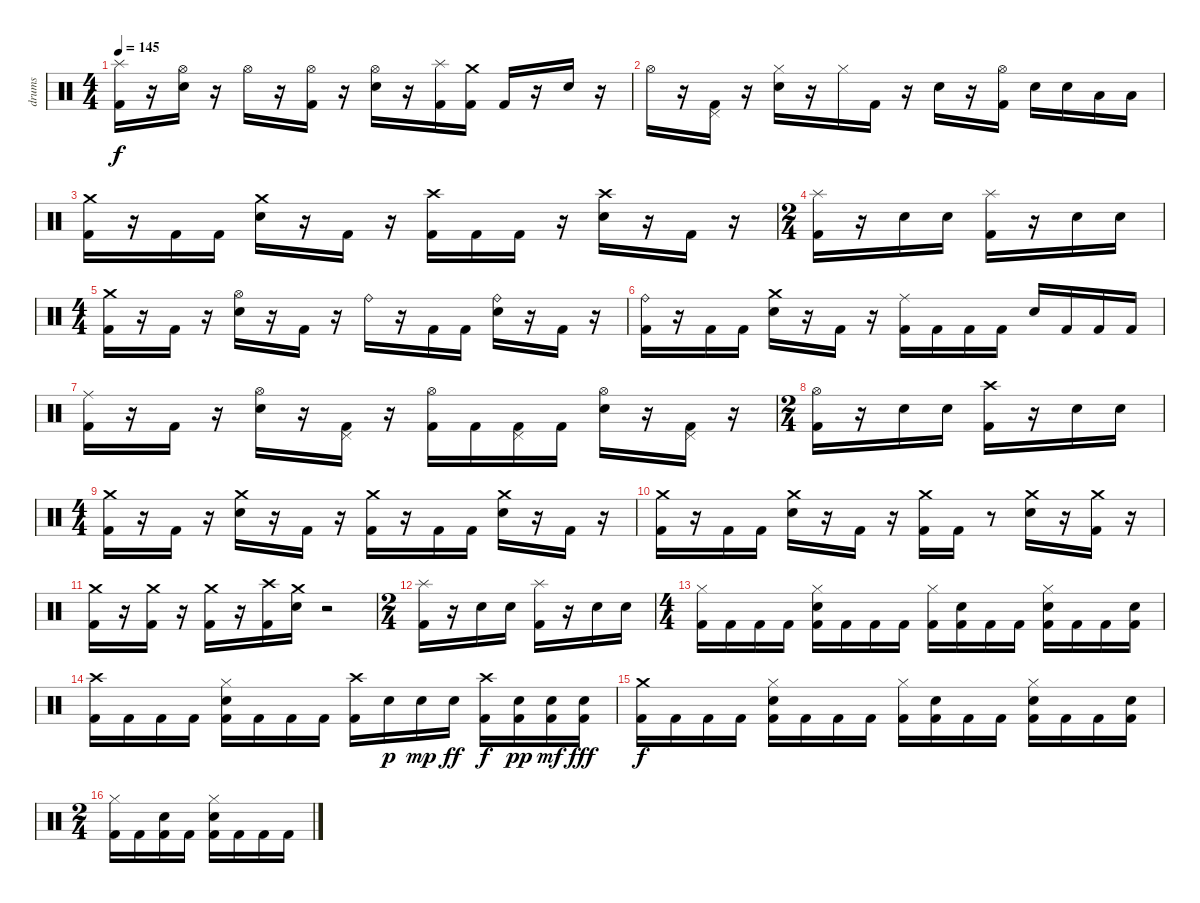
\track ("drums" "drums") {instrument percussion}
\staff {score}
\articulation defaults
\ts (4 4)
\tempo 145
\clef neutral
\ks c
("Kick (hit) 2" "Splash (hit)").16{dy f} r.16 ("Snare (hit) 2" "Hi-Hat (open)").16 r.16 "Hi-Hat (open)".16 r.16 ("Kick (hit) 2" "Hi-Hat (open)").16 r.16 ("Snare (hit) 2" "Hi-Hat (open)").16 r.16 ("Kick (hit) 2" "Splash (hit)").16 ("Kick (hit) 2" "Crash medium (hit)").16 "Kick (hit) 2".16 r.16 "Snare (hit) 2".16 r.16 |
"Hi-Hat (open)".16 r.16 ("Kick (hit) 2" "Pedal Hi-Hat (hit)").16 r.16 ("Snare (hit) 2" "Hi-Hat (closed)").16 r.16 "Hi-Hat (closed)".16 "Kick (hit) 2".16 r.16 "Snare (hit) 2".16 r.16 ("Kick (hit) 2" "Hi-Hat (open)").16 "Snare (hit) 2".16 "Snare (hit) 2".16 "Low Tom (hit)".16 "Low Tom (hit)".16 |
("Kick (hit) 2" "Crash medium (hit)").16 r.16 "Kick (hit) 2".16 "Kick (hit) 2".16 ("Snare (hit) 2" "Crash medium (hit)").16 r.16 "Kick (hit) 2".16 r.16 ("Kick (hit) 2" "Crash high (hit)").16 "Kick (hit) 2".16 "Kick (hit) 2".16 r.16 ("Snare (hit) 2" "Crash high (hit)").16 r.16 "Kick (hit) 2".16 r.16 |
\ts (2 4)
("Kick (hit) 2" "Splash (hit)").16 r.16 "Snare (hit) 2".16 "Snare (hit) 2".16 ("Kick (hit) 2" "Splash (hit)").16 r.16 "Snare (hit) 2".16 "Snare (hit) 2".16 |
\ts (4 4)
("Kick (hit) 2" "Crash medium (hit)").16 r.16 "Kick (hit) 2".16 r.16 ("Snare (hit) 2" "Hi-Hat (open)").16 r.16 "Kick (hit) 2".16 r.16 "Ride (bell)".16 r.16 "Kick (hit) 2".16 "Kick (hit) 2".16 ("Snare (hit) 2" "Ride (bell)").16 r.16 "Kick (hit) 2".16 r.16 |
("Kick (hit) 2" "Ride (bell)").16 r.16 "Kick (hit) 2".16 "Kick (hit) 2".16 ("Snare (hit) 2" "Crash medium (hit)").16 r.16 "Kick (hit) 2".16 r.16 ("Kick (hit) 2" "Ride (middle)").16 "Kick (hit) 2".16 "Kick (hit) 2".16 "Kick (hit) 2".16 "Snare (hit) 2".16 "Kick (hit) 2".16 "Kick (hit) 2".16 "Kick (hit) 2".16 |
("Kick (hit) 2" "Ride (middle)").16 r.16 "Kick (hit) 2".16 r.16 ("Snare (hit) 2" "Hi-Hat (open)").16 r.16 ("Kick (hit) 2" "Pedal Hi-Hat (hit)").16 r.16 ("Kick (hit) 2" "Hi-Hat (open)").16 "Kick (hit) 2".16 ("Kick (hit) 2" "Pedal Hi-Hat (hit)").16 "Kick (hit) 2".16 ("Snare (hit) 2" "Hi-Hat (open)").16 r.16 ("Kick (hit) 2" "Pedal Hi-Hat (hit)").16 r.16 |
\ts (2 4)
("Kick (hit) 2" "Hi-Hat (open)").16 r.16 "Snare (hit) 2".16 "Snare (hit) 2".16 ("Kick (hit) 2" "Crash high (hit)").16 r.16 "Snare (hit) 2".16 "Snare (hit) 2".16 |
\ts (4 4)
("Kick (hit) 2" "Crash medium (hit)").16 r.16 "Kick (hit) 2".16 r.16 ("Snare (hit) 2" "Crash medium (hit)").16 r.16 "Kick (hit) 2".16 r.16 ("Kick (hit) 2" "Crash medium (hit)").16 r.16 "Kick (hit) 2".16 "Kick (hit) 2".16 ("Snare (hit) 2" "Crash medium (hit)").16 r.16 "Kick (hit) 2".16 r.16 |
("Kick (hit) 2" "Crash medium (hit)").16 r.16 "Kick (hit) 2".16 "Kick (hit) 2".16 ("Snare (hit) 2" "Crash medium (hit)").16 r.16 "Kick (hit) 2".16 r.16 ("Kick (hit) 2" "Crash medium (hit)").16 "Kick (hit) 2".16 r.8 ("Snare (hit) 2" "Crash medium (hit)").16 r.16 ("Kick (hit) 2" "Crash medium (hit)").16 r.16 |
("Kick (hit) 2" "Crash medium (hit)").16 r.16 ("Kick (hit) 2" "Crash medium (hit)").16 r.16 ("Kick (hit) 2" "Crash medium (hit)").16 r.16 ("Kick (hit) 2" "Crash high (hit)").16 ("Snare (hit) 2" "Crash medium (hit)").16 r.2 |
\ts (2 4)
("Kick (hit) 2" "Splash (hit)").16 r.16 "Snare (hit) 2".16 "Snare (hit) 2".16 ("Kick (hit) 2" "Splash (hit)").16 r.16 "Snare (hit) 2".16 "Snare (hit) 2".16 |
\ts (4 4)
("Kick (hit) 2" "Hi-Hat (closed)").16 "Kick (hit) 2".16 "Kick (hit) 2".16 "Kick (hit) 2".16 ("Kick (hit) 2" "Snare (hit) 2" "Hi-Hat (closed)").16 "Kick (hit) 2".16 "Kick (hit) 2".16 "Kick (hit) 2".16 ("Kick (hit) 2" "Hi-Hat (closed)").16 ("Kick (hit) 2" "Snare (hit) 2").16 "Kick (hit) 2".16 "Kick (hit) 2".16 ("Kick (hit) 2" "Snare (hit) 2" "Hi-Hat (closed)").16 "Kick (hit) 2".16 "Kick (hit) 2".16 ("Kick (hit) 2" "Snare (hit) 2").16 |
("Kick (hit) 2" "Crash high (hit)").16 "Kick (hit) 2".16 "Kick (hit) 2".16 "Kick (hit) 2".16 ("Kick (hit) 2" "Snare (hit) 2" "Hi-Hat (closed)").16 "Kick (hit) 2".16 "Kick (hit) 2".16 "Kick (hit) 2".16 ("Kick (hit) 2" "Crash high (hit)").16 "Snare (hit) 2".16{dy p} "Snare (hit) 2".16{dy mp} "Snare (hit) 2".16{dy ff} ("Kick (hit) 2" "Crash high (hit)").16{dy f} ("Kick (hit) 2" "Snare (hit) 2").16{dy pp} ("Kick (hit) 2" "Snare (hit) 2").16{dy mf} ("Kick (hit) 2" "Snare (hit) 2").16{dy fff} |
("Kick (hit) 2" "Crash medium (hit)").16{dy f} "Kick (hit) 2".16 "Kick (hit) 2".16 "Kick (hit) 2".16 ("Kick (hit) 2" "Snare (hit) 2" "Hi-Hat (closed)").16 "Kick (hit) 2".16 "Kick (hit) 2".16 "Kick (hit) 2".16 ("Kick (hit) 2" "Hi-Hat (closed)").16 ("Kick (hit) 2" "Snare (hit) 2").16 "Kick (hit) 2".16 "Kick (hit) 2".16 ("Kick (hit) 2" "Snare (hit) 2" "Hi-Hat (closed)").16 "Kick (hit) 2".16 "Kick (hit) 2".16 ("Kick (hit) 2" "Snare (hit) 2").16 |
\ts (2 4)
("Kick (hit) 2" "Hi-Hat (closed)").16 "Kick (hit) 2".16 ("Kick (hit) 2" "Snare (hit) 2").16 "Kick (hit) 2".16 ("Kick (hit) 2" "Snare (hit) 2" "Hi-Hat (closed)").16 "Kick (hit) 2".16 "Kick (hit) 2".16 "Kick (hit) 2".16
